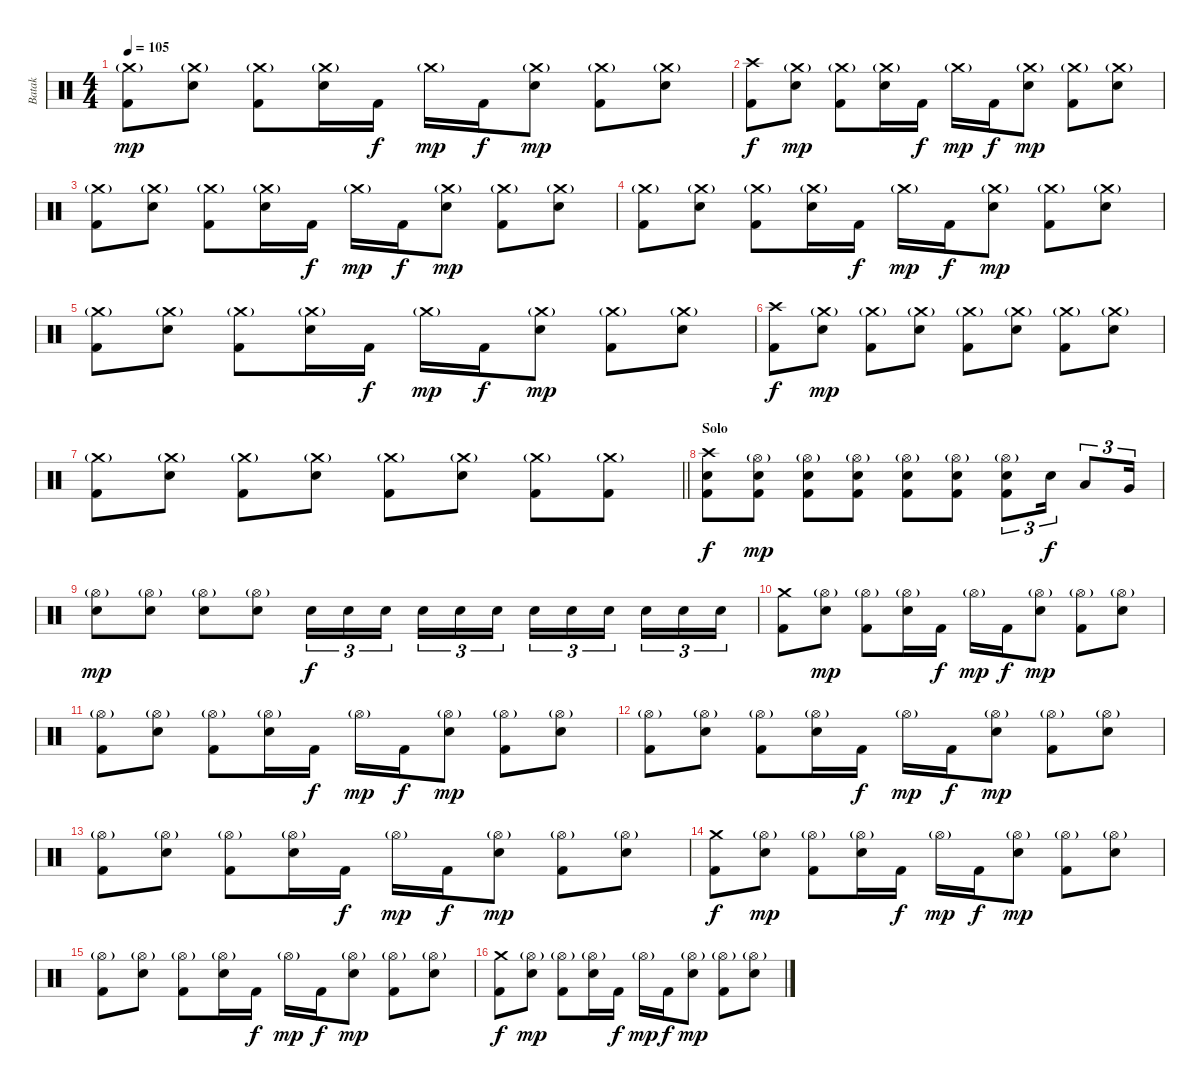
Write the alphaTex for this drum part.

\track ("Batak" "Batak") {instrument percussion bank 7}
\staff {score}
\articulation defaults
\ts (4 4)
\tempo 105
\clef neutral
\ks c
("Crash medium (hit)"{g} "Kick (hit) 2").8{dy mp} ("Crash medium (hit)"{g} "Electric Snare (hit)").8 ("Crash medium (hit)"{g} "Kick (hit) 2").8 ("Crash medium (hit)"{g} "Electric Snare (hit)").16 "Kick (hit) 2".16{dy f} "Crash medium (hit)"{g}.16{dy mp} "Kick (hit) 2".16{dy f} ("Crash medium (hit)"{g} "Electric Snare (hit)").8{dy mp} ("Crash medium (hit)"{g} "Kick (hit) 2").8 ("Crash medium (hit)"{g} "Electric Snare (hit)").8 |
("Crash high (hit)" "Kick (hit) 2").8{dy f} ("Crash medium (hit)"{g} "Electric Snare (hit)").8{dy mp} ("Crash medium (hit)"{g} "Kick (hit) 2").8 ("Crash medium (hit)"{g} "Electric Snare (hit)").16 "Kick (hit) 2".16{dy f} "Crash medium (hit)"{g}.16{dy mp} "Kick (hit) 2".16{dy f} ("Crash medium (hit)"{g} "Electric Snare (hit)").8{dy mp} ("Crash medium (hit)"{g} "Kick (hit) 2").8 ("Crash medium (hit)"{g} "Electric Snare (hit)").8 |
("Crash medium (hit)"{g} "Kick (hit) 2").8 ("Crash medium (hit)"{g} "Electric Snare (hit)").8 ("Crash medium (hit)"{g} "Kick (hit) 2").8 ("Crash medium (hit)"{g} "Electric Snare (hit)").16 "Kick (hit) 2".16{dy f} "Crash medium (hit)"{g}.16{dy mp} "Kick (hit) 2".16{dy f} ("Crash medium (hit)"{g} "Electric Snare (hit)").8{dy mp} ("Crash medium (hit)"{g} "Kick (hit) 2").8 ("Crash medium (hit)"{g} "Electric Snare (hit)").8 |
("Crash medium (hit)"{g} "Kick (hit) 2").8 ("Crash medium (hit)"{g} "Electric Snare (hit)").8 ("Crash medium (hit)"{g} "Kick (hit) 2").8 ("Crash medium (hit)"{g} "Electric Snare (hit)").16 "Kick (hit) 2".16{dy f} "Crash medium (hit)"{g}.16{dy mp} "Kick (hit) 2".16{dy f} ("Crash medium (hit)"{g} "Electric Snare (hit)").8{dy mp} ("Crash medium (hit)"{g} "Kick (hit) 2").8 ("Crash medium (hit)"{g} "Electric Snare (hit)").8 |
("Crash medium (hit)"{g} "Kick (hit) 2").8 ("Crash medium (hit)"{g} "Electric Snare (hit)").8 ("Crash medium (hit)"{g} "Kick (hit) 2").8 ("Crash medium (hit)"{g} "Electric Snare (hit)").16 "Kick (hit) 2".16{dy f} "Crash medium (hit)"{g}.16{dy mp} "Kick (hit) 2".16{dy f} ("Crash medium (hit)"{g} "Electric Snare (hit)").8{dy mp} ("Crash medium (hit)"{g} "Kick (hit) 2").8 ("Crash medium (hit)"{g} "Electric Snare (hit)").8 |
("Crash high (hit)" "Kick (hit) 2").8{dy f} ("Crash medium (hit)"{g} "Electric Snare (hit)").8{dy mp} ("Crash medium (hit)"{g} "Kick (hit) 2").8 ("Crash medium (hit)"{g} "Electric Snare (hit)").8 ("Crash medium (hit)"{g} "Kick (hit) 2").8 ("Crash medium (hit)"{g} "Electric Snare (hit)").8 ("Crash medium (hit)"{g} "Kick (hit) 2").8 ("Crash medium (hit)"{g} "Electric Snare (hit)").8 |
\barLineRight lightlight
("Crash medium (hit)"{g} "Kick (hit) 2").8 ("Crash medium (hit)"{g} "Electric Snare (hit)").8 ("Crash medium (hit)"{g} "Kick (hit) 2").8 ("Crash medium (hit)"{g} "Electric Snare (hit)").8 ("Crash medium (hit)"{g} "Kick (hit) 2").8 ("Crash medium (hit)"{g} "Electric Snare (hit)").8 ("Crash medium (hit)"{g} "Kick (hit) 2").8 ("Crash medium (hit)"{g} "Kick (hit) 2").8 |
\section ("" "Solo")
("Crash high (hit)" "Electric Snare (hit)" "Kick (hit) 2").8{dy f} ("Hi-Hat (open)"{g} "Electric Snare (hit)" "Kick (hit) 2").8{dy mp} ("Hi-Hat (open)"{g} "Electric Snare (hit)" "Kick (hit) 2").8 ("Hi-Hat (open)"{g} "Electric Snare (hit)" "Kick (hit) 2").8 ("Hi-Hat (open)"{g} "Electric Snare (hit)" "Kick (hit) 2").8 ("Hi-Hat (open)"{g} "Electric Snare (hit)" "Kick (hit) 2").8 ("Hi-Hat (open)"{g} "Electric Snare (hit)" "Kick (hit) 2").8{tu (3 2)} "Electric Snare (hit)".16{tu (3 2) dy f} "Low Tom (hit)".8{tu (3 2)} "Very Low Tom (hit)".16{tu (3 2)} |
("Hi-Hat (open)"{g} "Electric Snare (hit)").8{dy mp} ("Hi-Hat (open)"{g} "Electric Snare (hit)").8 ("Hi-Hat (open)"{g} "Electric Snare (hit)").8 ("Hi-Hat (open)"{g} "Electric Snare (hit)").8 "Electric Snare (hit)".16{tu (3 2) dy f} "Electric Snare (hit)".16{tu (3 2)} "Electric Snare (hit)".16{tu (3 2) beam splitsecondary} "Electric Snare (hit)".16{tu (3 2)} "Electric Snare (hit)".16{tu (3 2)} "Electric Snare (hit)".16{tu (3 2)} "Electric Snare (hit)".16{tu (3 2)} "Electric Snare (hit)".16{tu (3 2)} "Electric Snare (hit)".16{tu (3 2) beam splitsecondary} "Electric Snare (hit)".16{tu (3 2)} "Electric Snare (hit)".16{tu (3 2)} "Electric Snare (hit)".16{tu (3 2)} |
("Crash medium (hit)" "Kick (hit) 2").8 ("Hi-Hat (open)"{g} "Electric Snare (hit)").8{dy mp} ("Hi-Hat (open)"{g} "Kick (hit) 2").8 ("Hi-Hat (open)"{g} "Electric Snare (hit)").16 "Kick (hit) 2".16{dy f} "Hi-Hat (open)"{g}.16{dy mp} "Kick (hit) 2".16{dy f} ("Hi-Hat (open)"{g} "Electric Snare (hit)").8{dy mp} ("Hi-Hat (open)"{g} "Kick (hit) 2").8 ("Hi-Hat (open)"{g} "Electric Snare (hit)").8 |
("Hi-Hat (open)"{g} "Kick (hit) 2").8 ("Hi-Hat (open)"{g} "Electric Snare (hit)").8 ("Hi-Hat (open)"{g} "Kick (hit) 2").8 ("Hi-Hat (open)"{g} "Electric Snare (hit)").16 "Kick (hit) 2".16{dy f} "Hi-Hat (open)"{g}.16{dy mp} "Kick (hit) 2".16{dy f} ("Hi-Hat (open)"{g} "Electric Snare (hit)").8{dy mp} ("Hi-Hat (open)"{g} "Kick (hit) 2").8 ("Hi-Hat (open)"{g} "Electric Snare (hit)").8 |
("Hi-Hat (open)"{g} "Kick (hit) 2").8 ("Hi-Hat (open)"{g} "Electric Snare (hit)").8 ("Hi-Hat (open)"{g} "Kick (hit) 2").8 ("Hi-Hat (open)"{g} "Electric Snare (hit)").16 "Kick (hit) 2".16{dy f} "Hi-Hat (open)"{g}.16{dy mp} "Kick (hit) 2".16{dy f} ("Hi-Hat (open)"{g} "Electric Snare (hit)").8{dy mp} ("Hi-Hat (open)"{g} "Kick (hit) 2").8 ("Hi-Hat (open)"{g} "Electric Snare (hit)").8 |
("Hi-Hat (open)"{g} "Kick (hit) 2").8 ("Hi-Hat (open)"{g} "Electric Snare (hit)").8 ("Hi-Hat (open)"{g} "Kick (hit) 2").8 ("Hi-Hat (open)"{g} "Electric Snare (hit)").16 "Kick (hit) 2".16{dy f} "Hi-Hat (open)"{g}.16{dy mp} "Kick (hit) 2".16{dy f} ("Hi-Hat (open)"{g} "Electric Snare (hit)").8{dy mp} ("Hi-Hat (open)"{g} "Kick (hit) 2").8 ("Hi-Hat (open)"{g} "Electric Snare (hit)").8 |
("Crash medium (hit)" "Kick (hit) 2").8{dy f} ("Hi-Hat (open)"{g} "Electric Snare (hit)").8{dy mp} ("Hi-Hat (open)"{g} "Kick (hit) 2").8 ("Hi-Hat (open)"{g} "Electric Snare (hit)").16 "Kick (hit) 2".16{dy f} "Hi-Hat (open)"{g}.16{dy mp} "Kick (hit) 2".16{dy f} ("Hi-Hat (open)"{g} "Electric Snare (hit)").8{dy mp} ("Hi-Hat (open)"{g} "Kick (hit) 2").8 ("Hi-Hat (open)"{g} "Electric Snare (hit)").8 |
("Hi-Hat (open)"{g} "Kick (hit) 2").8 ("Hi-Hat (open)"{g} "Electric Snare (hit)").8 ("Hi-Hat (open)"{g} "Kick (hit) 2").8 ("Hi-Hat (open)"{g} "Electric Snare (hit)").16 "Kick (hit) 2".16{dy f} "Hi-Hat (open)"{g}.16{dy mp} "Kick (hit) 2".16{dy f} ("Hi-Hat (open)"{g} "Electric Snare (hit)").8{dy mp} ("Hi-Hat (open)"{g} "Kick (hit) 2").8 ("Hi-Hat (open)"{g} "Electric Snare (hit)").8 |
("Crash medium (hit)" "Kick (hit) 2").8{dy f} ("Hi-Hat (open)"{g} "Electric Snare (hit)").8{dy mp} ("Hi-Hat (open)"{g} "Kick (hit) 2").8 ("Hi-Hat (open)"{g} "Electric Snare (hit)").16 "Kick (hit) 2".16{dy f} "Hi-Hat (open)"{g}.16{dy mp} "Kick (hit) 2".16{dy f} ("Hi-Hat (open)"{g} "Electric Snare (hit)").8{dy mp} ("Hi-Hat (open)"{g} "Kick (hit) 2").8 ("Hi-Hat (open)"{g} "Electric Snare (hit)").8
